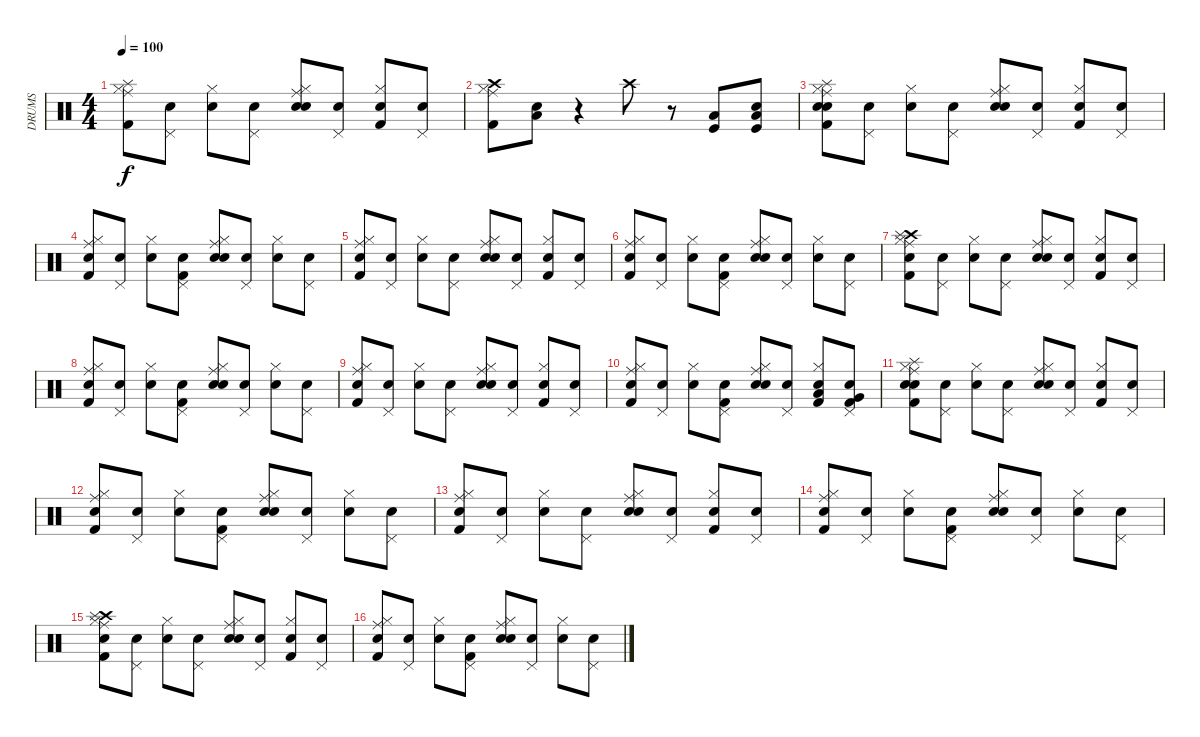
\track ("DRUMS" "DRUMS") {instrument percussion}
\staff {score}
\articulation defaults
\ts (4 4)
\tempo 100
\clef neutral
\ks c
("Splash (hit)" "Kick (hit) 2" "Ride (middle)" "Hi-Hat (closed)").8{dy f} ("Snare (hit)" "Pedal Hi-Hat (hit)").8 ("Snare (hit)" "Hi-Hat (closed)").8 ("Snare (hit)" "Pedal Hi-Hat (hit)").8 ("Snare (hit)" "Ride (middle)" "Hi-Hat (closed)" "Snare (hit) 2").8 ("Snare (hit)" "Pedal Hi-Hat (hit)").8 ("Snare (hit)" "Hi-Hat (closed)" "Kick (hit) 2").8 ("Snare (hit)" "Pedal Hi-Hat (hit)").8 |
("Crash high (hit)" "Ride (middle)" "Hi-Hat (closed)" "Kick (hit) 2").8 ("Snare (hit)" "Low Tom (hit)").8 r.4 "Crash high (hit)".8 r.8 ("Kick (hit)" "Low Tom (hit)").8 ("Snare (hit)" "Kick (hit)" "Low Tom (hit)").8 |
("Snare (hit)" "Ride (middle)" "Hi-Hat (closed)" "Kick (hit) 2" "Snare (hit) 2" "Splash (hit)").8 ("Snare (hit)" "Pedal Hi-Hat (hit)").8 ("Snare (hit)" "Hi-Hat (closed)").8 ("Snare (hit)" "Pedal Hi-Hat (hit)").8 ("Snare (hit)" "Ride (middle)" "Hi-Hat (closed)" "Snare (hit) 2").8 ("Snare (hit)" "Pedal Hi-Hat (hit)").8 ("Snare (hit)" "Hi-Hat (closed)" "Kick (hit) 2").8 ("Snare (hit)" "Pedal Hi-Hat (hit)").8 |
("Snare (hit)" "Ride (middle)" "Hi-Hat (closed)" "Kick (hit) 2").8 ("Snare (hit)" "Pedal Hi-Hat (hit)").8 ("Snare (hit)" "Hi-Hat (closed)").8 ("Snare (hit)" "Pedal Hi-Hat (hit)" "Kick (hit) 2").8 ("Snare (hit)" "Ride (middle)" "Hi-Hat (closed)" "Snare (hit) 2").8 ("Snare (hit)" "Pedal Hi-Hat (hit)").8 ("Snare (hit)" "Hi-Hat (closed)").8 ("Snare (hit)" "Pedal Hi-Hat (hit)").8 |
("Snare (hit)" "Kick (hit) 2" "Ride (middle)" "Hi-Hat (closed)").8 ("Snare (hit)" "Pedal Hi-Hat (hit)").8 ("Snare (hit)" "Hi-Hat (closed)").8 ("Snare (hit)" "Pedal Hi-Hat (hit)").8 ("Snare (hit)" "Ride (middle)" "Hi-Hat (closed)" "Snare (hit) 2").8 ("Snare (hit)" "Pedal Hi-Hat (hit)").8 ("Snare (hit)" "Hi-Hat (closed)" "Kick (hit) 2").8 ("Snare (hit)" "Pedal Hi-Hat (hit)").8 |
("Snare (hit)" "Ride (middle)" "Hi-Hat (closed)" "Kick (hit) 2").8 ("Snare (hit)" "Pedal Hi-Hat (hit)").8 ("Snare (hit)" "Hi-Hat (closed)").8 ("Snare (hit)" "Pedal Hi-Hat (hit)" "Kick (hit) 2").8 ("Snare (hit)" "Ride (middle)" "Hi-Hat (closed)" "Snare (hit) 2").8 ("Snare (hit)" "Pedal Hi-Hat (hit)").8 ("Snare (hit)" "Hi-Hat (closed)").8 ("Snare (hit)" "Pedal Hi-Hat (hit)").8 |
("Snare (hit)" "Hi-Hat (closed)" "Ride (middle)" "Kick (hit) 2" "Crash high (hit)" "Splash (hit)").8 ("Snare (hit)" "Pedal Hi-Hat (hit)").8 ("Snare (hit)" "Hi-Hat (closed)").8 ("Snare (hit)" "Pedal Hi-Hat (hit)").8 ("Snare (hit)" "Ride (middle)" "Hi-Hat (closed)" "Snare (hit) 2").8 ("Snare (hit)" "Pedal Hi-Hat (hit)").8 ("Snare (hit)" "Hi-Hat (closed)" "Kick (hit) 2").8 ("Snare (hit)" "Pedal Hi-Hat (hit)").8 |
("Snare (hit)" "Ride (middle)" "Hi-Hat (closed)" "Kick (hit) 2").8 ("Snare (hit)" "Pedal Hi-Hat (hit)").8 ("Snare (hit)" "Hi-Hat (closed)").8 ("Snare (hit)" "Pedal Hi-Hat (hit)" "Kick (hit) 2").8 ("Snare (hit)" "Ride (middle)" "Hi-Hat (closed)" "Snare (hit) 2").8 ("Snare (hit)" "Pedal Hi-Hat (hit)").8 ("Snare (hit)" "Hi-Hat (closed)").8 ("Snare (hit)" "Pedal Hi-Hat (hit)").8 |
("Snare (hit)" "Kick (hit) 2" "Ride (middle)" "Hi-Hat (closed)").8 ("Snare (hit)" "Pedal Hi-Hat (hit)").8 ("Snare (hit)" "Hi-Hat (closed)").8 ("Snare (hit)" "Pedal Hi-Hat (hit)").8 ("Snare (hit)" "Ride (middle)" "Hi-Hat (closed)" "Snare (hit) 2").8 ("Snare (hit)" "Pedal Hi-Hat (hit)").8 ("Snare (hit)" "Hi-Hat (closed)" "Kick (hit) 2").8 ("Snare (hit)" "Pedal Hi-Hat (hit)").8 |
("Snare (hit)" "Ride (middle)" "Hi-Hat (closed)" "Kick (hit) 2").8 ("Snare (hit)" "Pedal Hi-Hat (hit)").8 ("Snare (hit)" "Hi-Hat (closed)").8 ("Snare (hit)" "Pedal Hi-Hat (hit)" "Kick (hit) 2").8 ("Snare (hit)" "Ride (middle)" "Hi-Hat (closed)" "Snare (hit) 2").8 ("Snare (hit)" "Pedal Hi-Hat (hit)").8 ("Snare (hit)" "Kick (hit) 2" "Low Tom (hit)" "Hi-Hat (closed)").8 ("Snare (hit)" "Very Low Tom (hit)" "Kick (hit) 2" "Pedal Hi-Hat (hit)").8 |
("Snare (hit)" "Ride (middle)" "Hi-Hat (closed)" "Kick (hit) 2" "Snare (hit) 2" "Splash (hit)").8 ("Snare (hit)" "Pedal Hi-Hat (hit)").8 ("Snare (hit)" "Hi-Hat (closed)").8 ("Snare (hit)" "Pedal Hi-Hat (hit)").8 ("Snare (hit)" "Ride (middle)" "Hi-Hat (closed)" "Snare (hit) 2").8 ("Snare (hit)" "Pedal Hi-Hat (hit)").8 ("Snare (hit)" "Hi-Hat (closed)" "Kick (hit) 2").8 ("Snare (hit)" "Pedal Hi-Hat (hit)").8 |
("Snare (hit)" "Ride (middle)" "Hi-Hat (closed)" "Kick (hit) 2").8 ("Snare (hit)" "Pedal Hi-Hat (hit)").8 ("Snare (hit)" "Hi-Hat (closed)").8 ("Snare (hit)" "Pedal Hi-Hat (hit)" "Kick (hit) 2").8 ("Snare (hit)" "Ride (middle)" "Hi-Hat (closed)" "Snare (hit) 2").8 ("Snare (hit)" "Pedal Hi-Hat (hit)").8 ("Snare (hit)" "Hi-Hat (closed)").8 ("Snare (hit)" "Pedal Hi-Hat (hit)").8 |
("Snare (hit)" "Kick (hit) 2" "Ride (middle)" "Hi-Hat (closed)").8 ("Snare (hit)" "Pedal Hi-Hat (hit)").8 ("Snare (hit)" "Hi-Hat (closed)").8 ("Snare (hit)" "Pedal Hi-Hat (hit)").8 ("Snare (hit)" "Ride (middle)" "Hi-Hat (closed)" "Snare (hit) 2").8 ("Snare (hit)" "Pedal Hi-Hat (hit)").8 ("Snare (hit)" "Hi-Hat (closed)" "Kick (hit) 2").8 ("Snare (hit)" "Pedal Hi-Hat (hit)").8 |
("Snare (hit)" "Ride (middle)" "Hi-Hat (closed)" "Kick (hit) 2").8 ("Snare (hit)" "Pedal Hi-Hat (hit)").8 ("Snare (hit)" "Hi-Hat (closed)").8 ("Snare (hit)" "Pedal Hi-Hat (hit)" "Kick (hit) 2").8 ("Snare (hit)" "Ride (middle)" "Hi-Hat (closed)" "Snare (hit) 2").8 ("Snare (hit)" "Pedal Hi-Hat (hit)").8 ("Snare (hit)" "Hi-Hat (closed)").8 ("Snare (hit)" "Pedal Hi-Hat (hit)").8 |
("Snare (hit)" "Hi-Hat (closed)" "Ride (middle)" "Kick (hit) 2" "Crash high (hit)" "Splash (hit)").8 ("Snare (hit)" "Pedal Hi-Hat (hit)").8 ("Snare (hit)" "Hi-Hat (closed)").8 ("Snare (hit)" "Pedal Hi-Hat (hit)").8 ("Snare (hit)" "Ride (middle)" "Hi-Hat (closed)" "Snare (hit) 2").8 ("Snare (hit)" "Pedal Hi-Hat (hit)").8 ("Snare (hit)" "Hi-Hat (closed)" "Kick (hit) 2").8 ("Snare (hit)" "Pedal Hi-Hat (hit)").8 |
("Snare (hit)" "Ride (middle)" "Hi-Hat (closed)" "Kick (hit) 2").8 ("Snare (hit)" "Pedal Hi-Hat (hit)").8 ("Snare (hit)" "Hi-Hat (closed)").8 ("Snare (hit)" "Pedal Hi-Hat (hit)" "Kick (hit) 2").8 ("Snare (hit)" "Ride (middle)" "Hi-Hat (closed)" "Snare (hit) 2").8 ("Snare (hit)" "Pedal Hi-Hat (hit)").8 ("Snare (hit)" "Hi-Hat (closed)").8 ("Snare (hit)" "Pedal Hi-Hat (hit)").8
